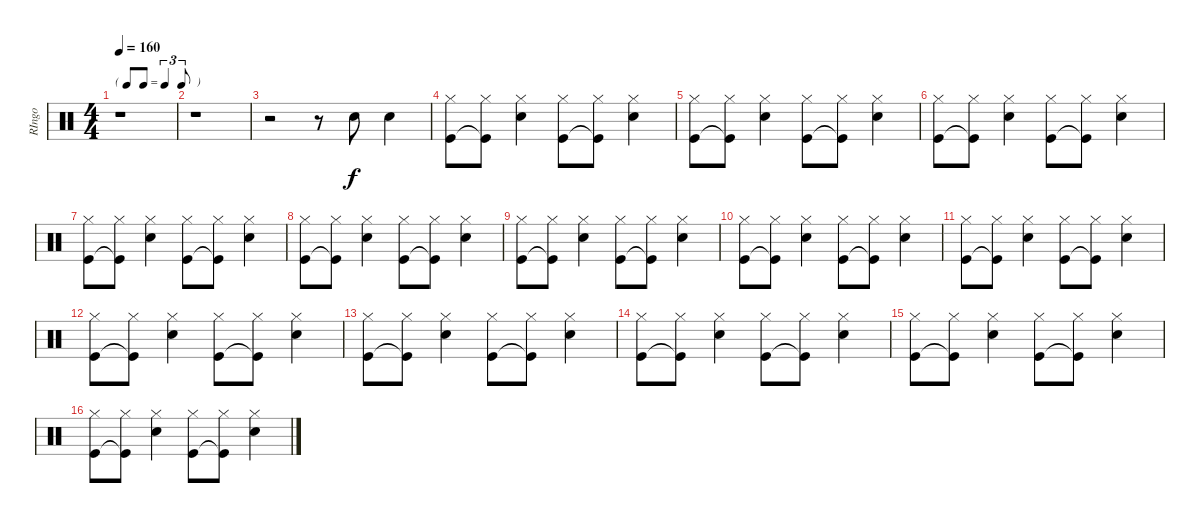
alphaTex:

\track ("RIngo" "RIngo") {instrument percussion}
\staff {score}
\articulation defaults
\ts (4 4)
\tf triplet8th
\tempo 160
\clef neutral
\ks c
r.1{dy f} |
r.1 |
r.2 r.8 "Snare (hit) 2".8 "Snare (hit) 2".4 |
("Hi-Hat (closed)" "Kick (hit)").8 ("Hi-Hat (closed)" "Kick (hit)"{t}).8 ("Hi-Hat (closed)" "Snare (hit) 2").4 ("Hi-Hat (closed)" "Kick (hit)").8 ("Hi-Hat (closed)" "Kick (hit)"{t}).8 ("Hi-Hat (closed)" "Snare (hit) 2").4 |
("Hi-Hat (closed)" "Kick (hit)").8 ("Hi-Hat (closed)" "Kick (hit)"{t}).8 ("Hi-Hat (closed)" "Snare (hit) 2").4 ("Hi-Hat (closed)" "Kick (hit)").8 ("Hi-Hat (closed)" "Kick (hit)"{t}).8 ("Hi-Hat (closed)" "Snare (hit) 2").4 |
("Hi-Hat (closed)" "Kick (hit)").8 ("Hi-Hat (closed)" "Kick (hit)"{t}).8 ("Hi-Hat (closed)" "Snare (hit) 2").4 ("Hi-Hat (closed)" "Kick (hit)").8 ("Hi-Hat (closed)" "Kick (hit)"{t}).8 ("Hi-Hat (closed)" "Snare (hit) 2").4 |
("Hi-Hat (closed)" "Kick (hit)").8 ("Hi-Hat (closed)" "Kick (hit)"{t}).8 ("Hi-Hat (closed)" "Snare (hit) 2").4 ("Hi-Hat (closed)" "Kick (hit)").8 ("Hi-Hat (closed)" "Kick (hit)"{t}).8 ("Hi-Hat (closed)" "Snare (hit) 2").4 |
("Hi-Hat (closed)" "Kick (hit)").8 ("Hi-Hat (closed)" "Kick (hit)"{t}).8 ("Hi-Hat (closed)" "Snare (hit) 2").4 ("Hi-Hat (closed)" "Kick (hit)").8 ("Hi-Hat (closed)" "Kick (hit)"{t}).8 ("Hi-Hat (closed)" "Snare (hit) 2").4 |
("Hi-Hat (closed)" "Kick (hit)").8 ("Hi-Hat (closed)" "Kick (hit)"{t}).8 ("Hi-Hat (closed)" "Snare (hit) 2").4 ("Hi-Hat (closed)" "Kick (hit)").8 ("Hi-Hat (closed)" "Kick (hit)"{t}).8 ("Hi-Hat (closed)" "Snare (hit) 2").4 |
("Hi-Hat (closed)" "Kick (hit)").8 ("Hi-Hat (closed)" "Kick (hit)"{t}).8 ("Hi-Hat (closed)" "Snare (hit) 2").4 ("Hi-Hat (closed)" "Kick (hit)").8 ("Hi-Hat (closed)" "Kick (hit)"{t}).8 ("Hi-Hat (closed)" "Snare (hit) 2").4 |
("Hi-Hat (closed)" "Kick (hit)").8 ("Hi-Hat (closed)" "Kick (hit)"{t}).8 ("Hi-Hat (closed)" "Snare (hit) 2").4 ("Hi-Hat (closed)" "Kick (hit)").8 ("Hi-Hat (closed)" "Kick (hit)"{t}).8 ("Hi-Hat (closed)" "Snare (hit) 2").4 |
("Hi-Hat (closed)" "Kick (hit)").8 ("Hi-Hat (closed)" "Kick (hit)"{t}).8 ("Hi-Hat (closed)" "Snare (hit) 2").4 ("Hi-Hat (closed)" "Kick (hit)").8 ("Hi-Hat (closed)" "Kick (hit)"{t}).8 ("Hi-Hat (closed)" "Snare (hit) 2").4 |
("Hi-Hat (closed)" "Kick (hit)").8 ("Hi-Hat (closed)" "Kick (hit)"{t}).8 ("Hi-Hat (closed)" "Snare (hit) 2").4 ("Hi-Hat (closed)" "Kick (hit)").8 ("Hi-Hat (closed)" "Kick (hit)"{t}).8 ("Hi-Hat (closed)" "Snare (hit) 2").4 |
("Hi-Hat (closed)" "Kick (hit)").8 ("Hi-Hat (closed)" "Kick (hit)"{t}).8 ("Hi-Hat (closed)" "Snare (hit) 2").4 ("Hi-Hat (closed)" "Kick (hit)").8 ("Hi-Hat (closed)" "Kick (hit)"{t}).8 ("Hi-Hat (closed)" "Snare (hit) 2").4 |
("Hi-Hat (closed)" "Kick (hit)").8 ("Hi-Hat (closed)" "Kick (hit)"{t}).8 ("Hi-Hat (closed)" "Snare (hit) 2").4 ("Hi-Hat (closed)" "Kick (hit)").8 ("Hi-Hat (closed)" "Kick (hit)"{t}).8 ("Hi-Hat (closed)" "Snare (hit) 2").4 |
("Hi-Hat (closed)" "Kick (hit)").8 ("Hi-Hat (closed)" "Kick (hit)"{t}).8 ("Hi-Hat (closed)" "Snare (hit) 2").4 ("Hi-Hat (closed)" "Kick (hit)").8 ("Hi-Hat (closed)" "Kick (hit)"{t}).8 ("Hi-Hat (closed)" "Snare (hit) 2").4
